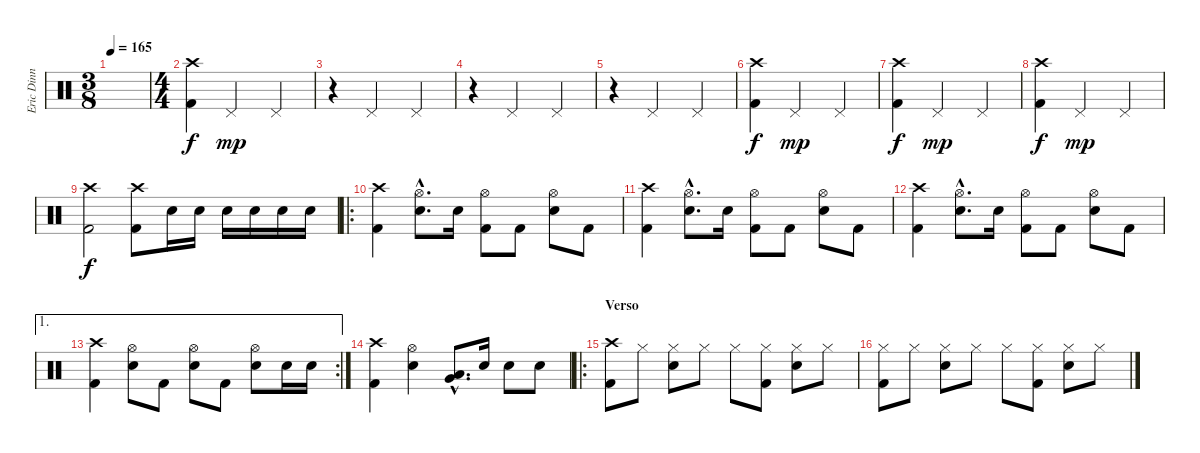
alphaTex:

\track ("Eric Dinn" "Eric Dinn") {instrument percussion}
\staff {score}
\articulation defaults
\ts (3 8)
\tempo 165
\clef neutral
\ks c
|
\ts (4 4)
("Crash high (hit)" "Kick (hit) 2").4 "Pedal Hi-Hat (hit)".2{dy mp} "Pedal Hi-Hat (hit)".4 |
r.4 "Pedal Hi-Hat (hit)".2 "Pedal Hi-Hat (hit)".4 |
r.4 "Pedal Hi-Hat (hit)".2 "Pedal Hi-Hat (hit)".4 |
r.4 "Pedal Hi-Hat (hit)".2 "Pedal Hi-Hat (hit)".4 |
("Crash high (hit)" "Kick (hit) 2").4{dy f} "Pedal Hi-Hat (hit)".2{dy mp} "Pedal Hi-Hat (hit)".4 |
("Crash high (hit)" "Kick (hit) 2").4{dy f} "Pedal Hi-Hat (hit)".2{dy mp} "Pedal Hi-Hat (hit)".4 |
("Crash high (hit)" "Kick (hit) 2").4{dy f} "Pedal Hi-Hat (hit)".2{dy mp} "Pedal Hi-Hat (hit)".4 |
("Crash high (hit)" "Kick (hit) 2").2{dy f} ("Crash high (hit)" "Kick (hit) 2").8 "Snare (hit) 2".16 "Snare (hit) 2".16 "Snare (hit) 2".16 "Snare (hit) 2".16 "Snare (hit) 2".16 "Snare (hit) 2".16 |
\ro
("Crash high (hit)" "Kick (hit) 2").4 ("Hi-Hat (open)"{hac} "Snare (hit) 2"{hac}).8{d} "Snare (hit) 2".16 ("Hi-Hat (open)" "Kick (hit) 2").8 "Kick (hit) 2".8 ("Hi-Hat (open)" "Snare (hit) 2").8 "Kick (hit) 2".8 |
("Crash high (hit)" "Kick (hit) 2").4 ("Hi-Hat (open)"{hac} "Snare (hit) 2"{hac}).8{d} "Snare (hit) 2".16 ("Hi-Hat (open)" "Kick (hit) 2").8 "Kick (hit) 2".8 ("Hi-Hat (open)" "Snare (hit) 2").8 "Kick (hit) 2".8 |
("Crash high (hit)" "Kick (hit) 2").4 ("Hi-Hat (open)"{hac} "Snare (hit) 2"{hac}).8{d} "Snare (hit) 2".16 ("Hi-Hat (open)" "Kick (hit) 2").8 "Kick (hit) 2".8 ("Hi-Hat (open)" "Snare (hit) 2").8 "Kick (hit) 2".8 |
\ae 1
\rc 2
("Crash high (hit)" "Kick (hit) 2").4 ("Hi-Hat (open)" "Snare (hit) 2").8 "Kick (hit) 2".8 ("Hi-Hat (open)" "Snare (hit) 2").8 "Kick (hit) 2".8 ("Hi-Hat (open)" "Snare (hit) 2").8 "Snare (hit) 2".16 "Snare (hit) 2".16 |
("Crash high (hit)" "Kick (hit) 2").4 ("Hi-Hat (open)" "Snare (hit) 2").4 ("Very Low Tom (hit)"{hac} "Low Tom (hit)"{hac}).8{d} "Snare (hit) 2".16 "Snare (hit) 2".8 "Snare (hit) 2".8 |
\ro
\section ("" "Verso")
("Crash high (hit)" "Kick (hit) 2").8 "Hi-Hat (closed)".8 ("Hi-Hat (closed)" "Snare (hit) 2").8 "Hi-Hat (closed)".8 "Hi-Hat (closed)".8 ("Hi-Hat (closed)" "Kick (hit) 2").8 ("Hi-Hat (closed)" "Snare (hit) 2").8 "Hi-Hat (closed)".8 |
("Hi-Hat (closed)" "Kick (hit) 2").8 "Hi-Hat (closed)".8 ("Hi-Hat (closed)" "Snare (hit) 2").8 "Hi-Hat (closed)".8 "Hi-Hat (closed)".8 ("Hi-Hat (closed)" "Kick (hit) 2").8 ("Hi-Hat (closed)" "Snare (hit) 2").8 "Hi-Hat (closed)".8
